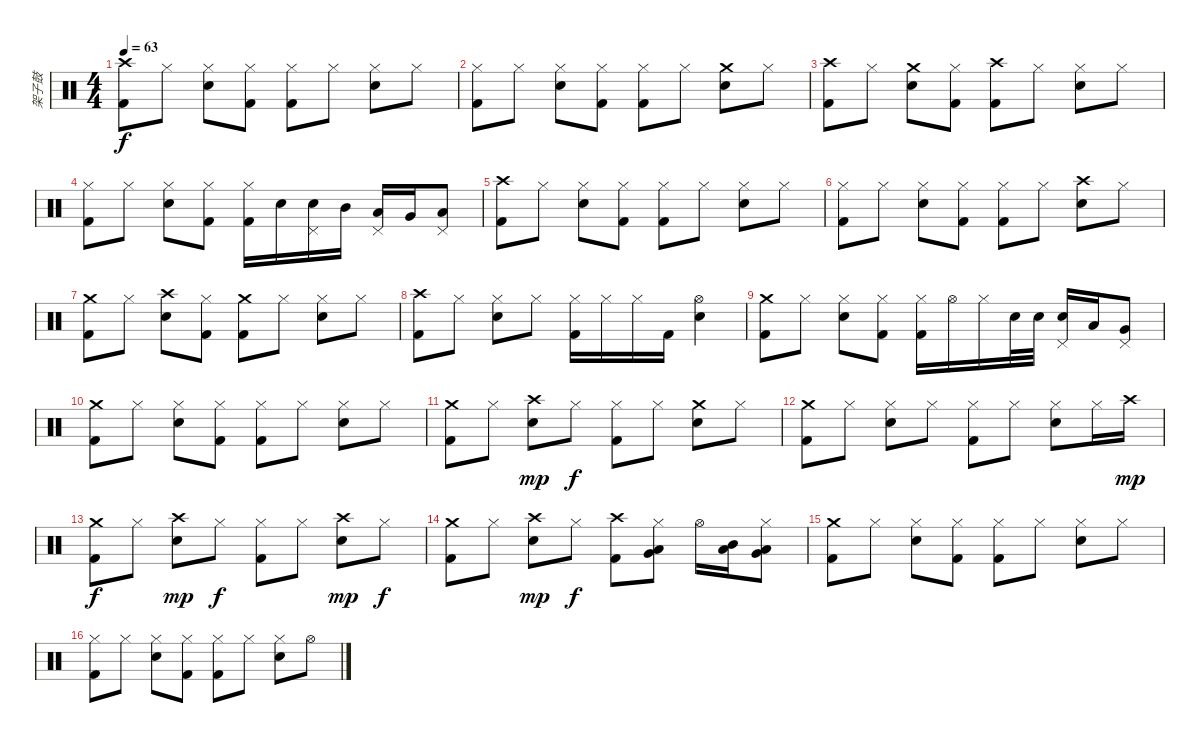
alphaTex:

\track ("架子鼓" "架子鼓") {instrument percussion}
\staff {score}
\articulation defaults
\ts (4 4)
\tempo 63
\clef neutral
\ks c
("Crash high (hit)" "Kick (hit) 2").8{dy f} "Hi-Hat (closed)".8 ("Hi-Hat (closed)" "Snare (hit) 2").8 ("Hi-Hat (closed)" "Kick (hit) 2").8 ("Hi-Hat (closed)" "Kick (hit) 2").8 "Hi-Hat (closed)".8 ("Hi-Hat (closed)" "Snare (hit) 2").8 "Hi-Hat (closed)".8 |
("Hi-Hat (closed)" "Kick (hit) 2").8 "Hi-Hat (closed)".8 ("Hi-Hat (closed)" "Snare (hit) 2").8 ("Hi-Hat (closed)" "Kick (hit) 2").8 ("Hi-Hat (closed)" "Kick (hit) 2").8 "Hi-Hat (closed)".8 ("Crash medium (hit)" "Snare (hit) 2").8 "Hi-Hat (closed)".8 |
("Crash high (hit)" "Kick (hit) 2").8 "Hi-Hat (closed)".8 ("Crash medium (hit)" "Snare (hit) 2").8 ("Hi-Hat (closed)" "Kick (hit) 2").8 ("Crash high (hit)" "Kick (hit) 2").8 "Hi-Hat (closed)".8 ("Hi-Hat (closed)" "Snare (hit) 2").8 "Hi-Hat (closed)".8 |
("Hi-Hat (closed)" "Kick (hit) 2").8 "Hi-Hat (closed)".8 ("Hi-Hat (closed)" "Snare (hit) 2").8 ("Hi-Hat (closed)" "Kick (hit) 2").8 ("Hi-Hat (closed)" "Kick (hit) 2").16 "Snare (hit) 2".16 ("Pedal Hi-Hat (hit)" "Snare (hit) 2").16 "Mid Tom (hit)".16 ("Pedal Hi-Hat (hit)" "Low Tom (hit)").16 "Very Low Tom (hit)".16 ("Pedal Hi-Hat (hit)" "Low Floor Tom (hit)").8 |
("Crash high (hit)" "Kick (hit) 2").8 "Hi-Hat (closed)".8 ("Hi-Hat (closed)" "Snare (hit) 2").8 ("Hi-Hat (closed)" "Kick (hit) 2").8 ("Hi-Hat (closed)" "Kick (hit) 2").8 "Hi-Hat (closed)".8 ("Hi-Hat (closed)" "Snare (hit) 2").8 "Hi-Hat (closed)".8 |
("Hi-Hat (closed)" "Kick (hit) 2").8 "Hi-Hat (closed)".8 ("Hi-Hat (closed)" "Snare (hit) 2").8 ("Hi-Hat (closed)" "Kick (hit) 2").8 ("Hi-Hat (closed)" "Kick (hit) 2").8 "Hi-Hat (closed)".8 ("Crash high (hit)" "Snare (hit) 2").8 "Hi-Hat (closed)".8 |
("Crash medium (hit)" "Kick (hit) 2").8 "Hi-Hat (closed)".8 ("Crash high (hit)" "Snare (hit) 2").8 ("Hi-Hat (closed)" "Kick (hit) 2").8 ("Crash medium (hit)" "Kick (hit) 2").8 "Hi-Hat (closed)".8 ("Hi-Hat (closed)" "Snare (hit) 2").8 "Hi-Hat (closed)".8 |
("Crash high (hit)" "Kick (hit) 2").8 "Hi-Hat (closed)".8 ("Hi-Hat (closed)" "Snare (hit) 2").8 "Hi-Hat (closed)".8 ("Hi-Hat (closed)" "Kick (hit) 2").16 "Hi-Hat (closed)".16 "Hi-Hat (closed)".16 "Kick (hit) 2".16 ("Hi-Hat (open)" "Snare (hit) 2").4 |
("Crash medium (hit)" "Kick (hit) 2").8 "Hi-Hat (closed)".8 ("Hi-Hat (closed)" "Snare (hit) 2").8 ("Hi-Hat (closed)" "Kick (hit) 2").8 ("Hi-Hat (closed)" "Kick (hit) 2").16 "Hi-Hat (open)".16 "Hi-Hat (closed)".16 "Snare (hit) 2".32 "Snare (hit) 2".32 ("Pedal Hi-Hat (hit)" "Snare (hit) 2").16 "Low Tom (hit)".16 ("Pedal Hi-Hat (hit)" "Very Low Tom (hit)").8 |
("Crash medium (hit)" "Kick (hit) 2").8 "Hi-Hat (closed)".8 ("Hi-Hat (closed)" "Snare (hit) 2").8 ("Hi-Hat (closed)" "Kick (hit) 2").8 ("Hi-Hat (closed)" "Kick (hit) 2").8 "Hi-Hat (closed)".8 ("Hi-Hat (closed)" "Snare (hit) 2").8 "Hi-Hat (closed)".8 |
("Crash medium (hit)" "Kick (hit) 2").8 "Hi-Hat (closed)".8 ("Crash high (hit)" "Snare (hit) 2").8{dy mp} "Hi-Hat (closed)".8{dy f} ("Hi-Hat (closed)" "Kick (hit) 2").8 "Hi-Hat (closed)".8 ("Crash medium (hit)" "Snare (hit) 2").8 "Hi-Hat (closed)".8 |
("Crash medium (hit)" "Kick (hit) 2").8 "Hi-Hat (closed)".8 ("Hi-Hat (closed)" "Snare (hit) 2").8 "Hi-Hat (closed)".8 ("Hi-Hat (closed)" "Kick (hit) 2").8 "Hi-Hat (closed)".8 ("Hi-Hat (closed)" "Snare (hit) 2").8 "Hi-Hat (closed)".16 "Crash high (hit)".16{dy mp} |
("Crash medium (hit)" "Kick (hit) 2").8{dy f} "Hi-Hat (closed)".8 ("Crash high (hit)" "Snare (hit) 2").8{dy mp} "Hi-Hat (closed)".8{dy f} ("Hi-Hat (closed)" "Kick (hit) 2").8 "Hi-Hat (closed)".8 ("Crash high (hit)" "Snare (hit) 2").8{dy mp} "Hi-Hat (closed)".8{dy f} |
("Crash medium (hit)" "Kick (hit) 2").8 "Hi-Hat (closed)".8 ("Crash high (hit)" "Snare (hit) 2").8{dy mp} "Hi-Hat (closed)".8{dy f} ("Crash high (hit)" "Kick (hit) 2").8 ("Hi-Hat (closed)" "Low Tom (hit)" "Very Low Tom (hit)").8 "Hi-Hat (open)".16 ("Mid Tom (hit)" "Low Tom (hit)").16 ("Hi-Hat (closed)" "Low Tom (hit)" "Very Low Tom (hit)").8 |
("Crash medium (hit)" "Kick (hit) 2").8 "Hi-Hat (closed)".8 ("Hi-Hat (closed)" "Snare (hit) 2").8 ("Hi-Hat (closed)" "Kick (hit) 2").8 ("Hi-Hat (closed)" "Kick (hit) 2").8 "Hi-Hat (closed)".8 ("Hi-Hat (closed)" "Snare (hit) 2").8 "Hi-Hat (closed)".8 |
("Hi-Hat (closed)" "Kick (hit) 2").8 "Hi-Hat (closed)".8 ("Hi-Hat (closed)" "Snare (hit) 2").8 ("Hi-Hat (closed)" "Kick (hit) 2").8 ("Hi-Hat (closed)" "Kick (hit) 2").8 "Hi-Hat (closed)".8 ("Hi-Hat (closed)" "Snare (hit) 2").8 "Hi-Hat (open)".8
